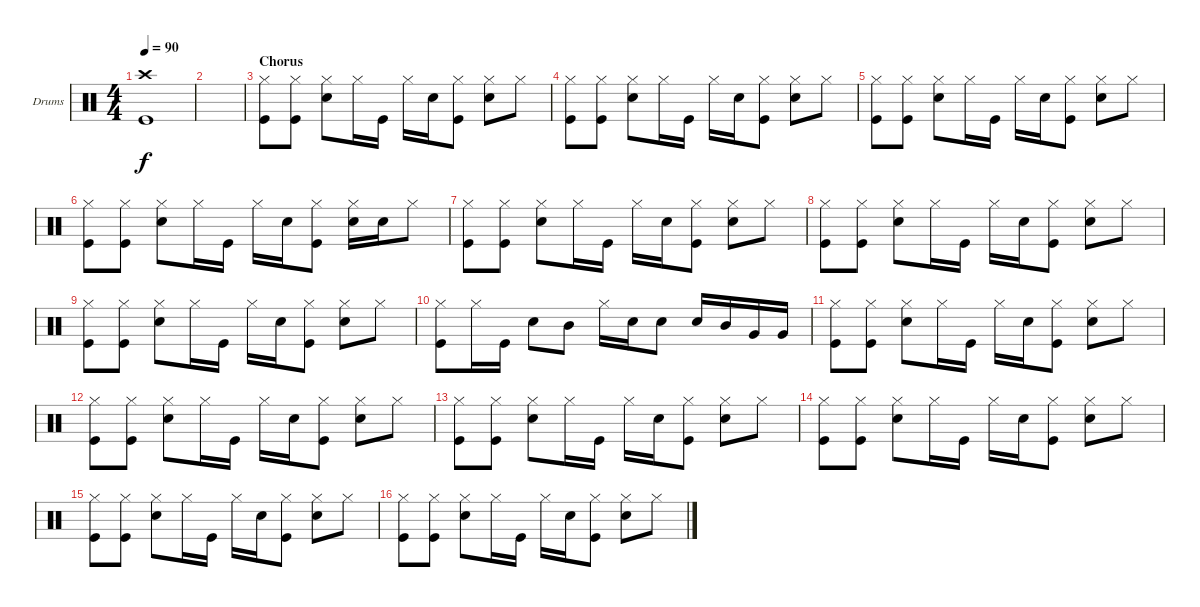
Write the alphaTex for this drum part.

\defaultSystemsLayout 4
\bracketExtendMode groupsimilarinstruments
\firstSystemTrackNameOrientation horizontal
\otherSystemsTrackNameOrientation horizontal
\track ("Drums" "Drums") {instrument percussion}
\staff {score}
\articulation defaults
\ts (4 4)
\tempo 90
\clef neutral
\scale
0.333333
\ks c
("Crash high (hit)" "Kick (hit)").1{dy f} |
\scale
0.333333 |
\section ("" "Chorus")
\scale
0.333333 ("Hi-Hat (closed)" "Kick (hit)").8 ("Hi-Hat (closed)" "Kick (hit)").8 ("Hi-Hat (closed)" "Snare (hit) 2").8 "Hi-Hat (closed)".16 "Kick (hit)".16 "Hi-Hat (closed)".16 "Snare (hit) 2".16 ("Hi-Hat (closed)" "Kick (hit)").8 ("Hi-Hat (closed)" "Snare (hit) 2").8 "Hi-Hat (closed)".8 |
\scale
0.333333 ("Hi-Hat (closed)" "Kick (hit)").8 ("Hi-Hat (closed)" "Kick (hit)").8 ("Hi-Hat (closed)" "Snare (hit) 2").8 "Hi-Hat (closed)".16 "Kick (hit)".16 "Hi-Hat (closed)".16 "Snare (hit) 2".16 ("Hi-Hat (closed)" "Kick (hit)").8 ("Hi-Hat (closed)" "Snare (hit) 2").8 "Hi-Hat (closed)".8 |
\scale
0.333333 ("Hi-Hat (closed)" "Kick (hit)").8 ("Hi-Hat (closed)" "Kick (hit)").8 ("Hi-Hat (closed)" "Snare (hit) 2").8 "Hi-Hat (closed)".16 "Kick (hit)".16 "Hi-Hat (closed)".16 "Snare (hit) 2".16 ("Hi-Hat (closed)" "Kick (hit)").8 ("Hi-Hat (closed)" "Snare (hit) 2").8 "Hi-Hat (closed)".8 |
\scale
0.333333 ("Hi-Hat (closed)" "Kick (hit)").8 ("Hi-Hat (closed)" "Kick (hit)").8 ("Hi-Hat (closed)" "Snare (hit) 2").8 "Hi-Hat (closed)".16 "Kick (hit)".16 "Hi-Hat (closed)".16 "Snare (hit) 2".16 ("Hi-Hat (closed)" "Kick (hit)").8 ("Hi-Hat (closed)" "Snare (hit) 2").16 "Snare (hit) 2".16 "Hi-Hat (closed)".8 |
\scale
0.333333 ("Hi-Hat (closed)" "Kick (hit)").8 ("Hi-Hat (closed)" "Kick (hit)").8 ("Hi-Hat (closed)" "Snare (hit) 2").8 "Hi-Hat (closed)".16 "Kick (hit)".16 "Hi-Hat (closed)".16 "Snare (hit) 2".16 ("Hi-Hat (closed)" "Kick (hit)").8 ("Hi-Hat (closed)" "Snare (hit) 2").8 "Hi-Hat (closed)".8 |
\scale
0.333333 ("Hi-Hat (closed)" "Kick (hit)").8 ("Hi-Hat (closed)" "Kick (hit)").8 ("Hi-Hat (closed)" "Snare (hit) 2").8 "Hi-Hat (closed)".16 "Kick (hit)".16 "Hi-Hat (closed)".16 "Snare (hit) 2".16 ("Hi-Hat (closed)" "Kick (hit)").8 ("Hi-Hat (closed)" "Snare (hit) 2").8 "Hi-Hat (closed)".8 |
\scale
0.333333 ("Hi-Hat (closed)" "Kick (hit)").8 ("Hi-Hat (closed)" "Kick (hit)").8 ("Hi-Hat (closed)" "Snare (hit) 2").8 "Hi-Hat (closed)".16 "Kick (hit)".16 "Hi-Hat (closed)".16 "Snare (hit) 2".16 ("Hi-Hat (closed)" "Kick (hit)").8 ("Hi-Hat (closed)" "Snare (hit) 2").8 "Hi-Hat (closed)".8 |
\scale
0.333333 ("Hi-Hat (closed)" "Kick (hit)").8 "Hi-Hat (closed)".16 "Kick (hit)".16 "Snare (hit) 2".8 "Mid Tom (hit)".8 "Hi-Hat (closed)".16 "Snare (hit) 2".16 "Snare (hit) 2".8 "Snare (hit) 2".16 "Mid Tom (hit)".16 "Very Low Tom (hit)".16 "Very Low Tom (hit)".16 |
\scale
0.333333 ("Hi-Hat (closed)" "Kick (hit)").8 ("Hi-Hat (closed)" "Kick (hit)").8 ("Hi-Hat (closed)" "Snare (hit) 2").8 "Hi-Hat (closed)".16 "Kick (hit)".16 "Hi-Hat (closed)".16 "Snare (hit) 2".16 ("Hi-Hat (closed)" "Kick (hit)").8 ("Hi-Hat (closed)" "Snare (hit) 2").8 "Hi-Hat (closed)".8 |
\scale
0.333333 ("Hi-Hat (closed)" "Kick (hit)").8 ("Hi-Hat (closed)" "Kick (hit)").8 ("Hi-Hat (closed)" "Snare (hit) 2").8 "Hi-Hat (closed)".16 "Kick (hit)".16 "Hi-Hat (closed)".16 "Snare (hit) 2".16 ("Hi-Hat (closed)" "Kick (hit)").8 ("Hi-Hat (closed)" "Snare (hit) 2").8 "Hi-Hat (closed)".8 |
\scale
0.333333 ("Hi-Hat (closed)" "Kick (hit)").8 ("Hi-Hat (closed)" "Kick (hit)").8 ("Hi-Hat (closed)" "Snare (hit) 2").8 "Hi-Hat (closed)".16 "Kick (hit)".16 "Hi-Hat (closed)".16 "Snare (hit) 2".16 ("Hi-Hat (closed)" "Kick (hit)").8 ("Hi-Hat (closed)" "Snare (hit) 2").8 "Hi-Hat (closed)".8 |
\scale
0.333333 ("Hi-Hat (closed)" "Kick (hit)").8 ("Hi-Hat (closed)" "Kick (hit)").8 ("Hi-Hat (closed)" "Snare (hit) 2").8 "Hi-Hat (closed)".16 "Kick (hit)".16 "Hi-Hat (closed)".16 "Snare (hit) 2".16 ("Hi-Hat (closed)" "Kick (hit)").8 ("Hi-Hat (closed)" "Snare (hit) 2").8 "Hi-Hat (closed)".8 |
\scale
0.333333 ("Hi-Hat (closed)" "Kick (hit)").8 ("Hi-Hat (closed)" "Kick (hit)").8 ("Hi-Hat (closed)" "Snare (hit) 2").8 "Hi-Hat (closed)".16 "Kick (hit)".16 "Hi-Hat (closed)".16 "Snare (hit) 2".16 ("Hi-Hat (closed)" "Kick (hit)").8 ("Hi-Hat (closed)" "Snare (hit) 2").8 "Hi-Hat (closed)".8 |
\scale
0.333333 ("Hi-Hat (closed)" "Kick (hit)").8 ("Hi-Hat (closed)" "Kick (hit)").8 ("Hi-Hat (closed)" "Snare (hit) 2").8 "Hi-Hat (closed)".16 "Kick (hit)".16 "Hi-Hat (closed)".16 "Snare (hit) 2".16 ("Hi-Hat (closed)" "Kick (hit)").8 ("Hi-Hat (closed)" "Snare (hit) 2").8 "Hi-Hat (closed)".8
